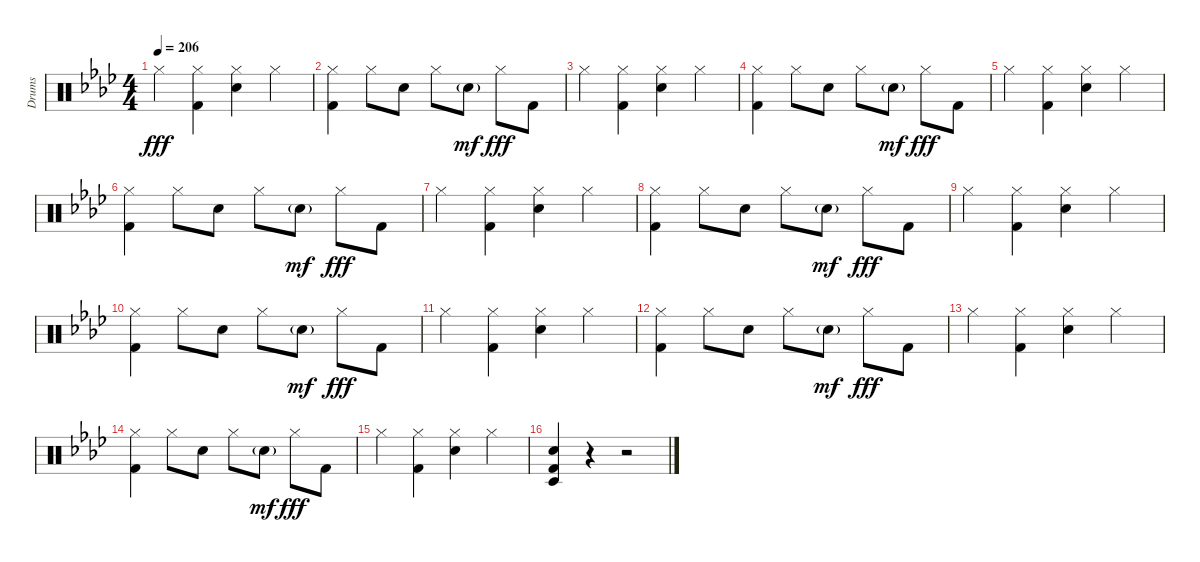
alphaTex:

\track ("Drums" "Drums") {instrument percussion}
\staff {score}
\articulation defaults
\ts (4 4)
\tempo 206
\clef neutral
\ks ab "Hi-Hat (closed)".4{dy fff}
("Hi-Hat (closed)" "Kick (hit) 2").4 ("Hi-Hat (closed)" "Electric Snare (hit)").4 "Hi-Hat (closed)".4 |
("Hi-Hat (closed)" "Kick (hit) 2").4 "Hi-Hat (closed)".8 "Electric Snare (hit)".8 "Hi-Hat (closed)".8 "Electric Snare (hit)"{g}.8{dy mf} "Hi-Hat (closed)".8{dy fff} "Kick (hit) 2".8 |
"Hi-Hat (closed)".4 ("Hi-Hat (closed)" "Kick (hit) 2").4 ("Hi-Hat (closed)" "Electric Snare (hit)").4 "Hi-Hat (closed)".4 |
("Hi-Hat (closed)" "Kick (hit) 2").4 "Hi-Hat (closed)".8 "Electric Snare (hit)".8 "Hi-Hat (closed)".8 "Electric Snare (hit)"{g}.8{dy mf} "Hi-Hat (closed)".8{dy fff} "Kick (hit) 2".8 |
"Hi-Hat (closed)".4 ("Hi-Hat (closed)" "Kick (hit) 2").4 ("Hi-Hat (closed)" "Electric Snare (hit)").4 "Hi-Hat (closed)".4 |
("Hi-Hat (closed)" "Kick (hit) 2").4 "Hi-Hat (closed)".8 "Electric Snare (hit)".8 "Hi-Hat (closed)".8 "Electric Snare (hit)"{g}.8{dy mf} "Hi-Hat (closed)".8{dy fff} "Kick (hit) 2".8 |
"Hi-Hat (closed)".4 ("Hi-Hat (closed)" "Kick (hit) 2").4 ("Hi-Hat (closed)" "Electric Snare (hit)").4 "Hi-Hat (closed)".4 |
("Hi-Hat (closed)" "Kick (hit) 2").4 "Hi-Hat (closed)".8 "Electric Snare (hit)".8 "Hi-Hat (closed)".8 "Electric Snare (hit)"{g}.8{dy mf} "Hi-Hat (closed)".8{dy fff} "Kick (hit) 2".8 |
"Hi-Hat (closed)".4 ("Hi-Hat (closed)" "Kick (hit) 2").4 ("Hi-Hat (closed)" "Electric Snare (hit)").4 "Hi-Hat (closed)".4 |
("Hi-Hat (closed)" "Kick (hit) 2").4 "Hi-Hat (closed)".8 "Electric Snare (hit)".8 "Hi-Hat (closed)".8 "Electric Snare (hit)"{g}.8{dy mf} "Hi-Hat (closed)".8{dy fff} "Kick (hit) 2".8 |
"Hi-Hat (closed)".4 ("Hi-Hat (closed)" "Kick (hit) 2").4 ("Hi-Hat (closed)" "Electric Snare (hit)").4 "Hi-Hat (closed)".4 |
("Hi-Hat (closed)" "Kick (hit) 2").4 "Hi-Hat (closed)".8 "Electric Snare (hit)".8 "Hi-Hat (closed)".8 "Electric Snare (hit)"{g}.8{dy mf} "Hi-Hat (closed)".8{dy fff} "Kick (hit) 2".8 |
"Hi-Hat (closed)".4 ("Hi-Hat (closed)" "Kick (hit) 2").4 ("Hi-Hat (closed)" "Electric Snare (hit)").4 "Hi-Hat (closed)".4 |
("Hi-Hat (closed)" "Kick (hit) 2").4 "Hi-Hat (closed)".8 "Electric Snare (hit)".8 "Hi-Hat (closed)".8 "Electric Snare (hit)"{g}.8{dy mf} "Hi-Hat (closed)".8{dy fff} "Kick (hit) 2".8 |
"Hi-Hat (closed)".4 ("Hi-Hat (closed)" "Kick (hit) 2").4 ("Hi-Hat (closed)" "Electric Snare (hit)").4 "Hi-Hat (closed)".4 |
("Timbale low (hit)" "Electric Snare (hit)" "Kick (hit) 2").4 r.4 r.2
